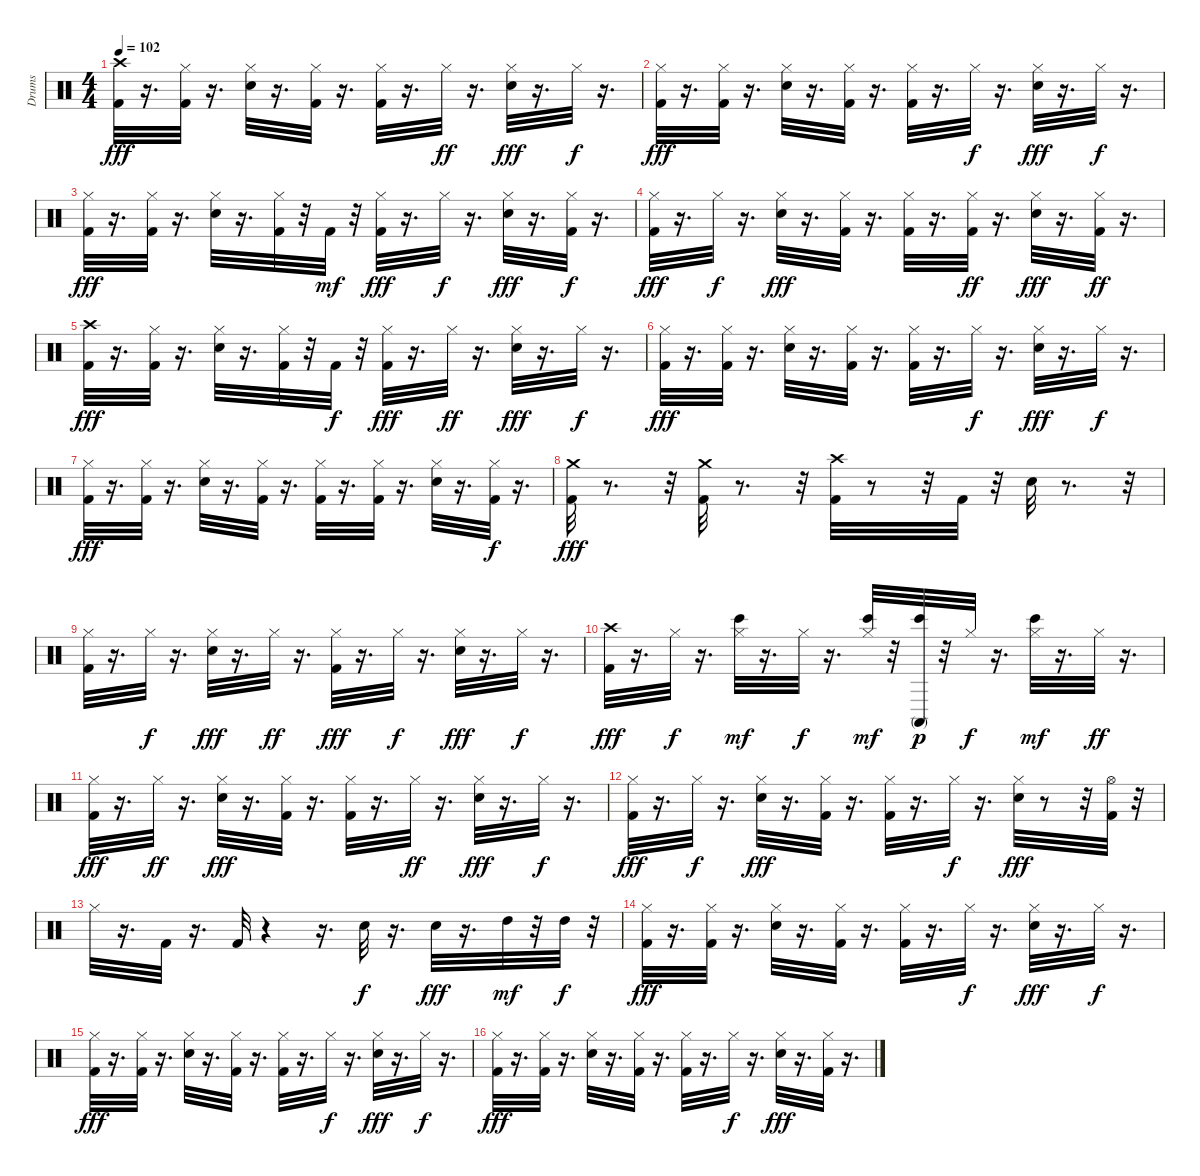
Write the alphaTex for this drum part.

\track ("Drums" "Drums") {instrument percussion}
\staff {score}
\articulation defaults
\ts (4 4)
\tempo 102
\clef neutral
\ks c
("Crash high (hit)" "Kick (hit) 2").32{dy fff} r.16{d} ("Hi-Hat (closed)" "Kick (hit) 2").32 r.16{d} ("Hi-Hat (closed)" "Electric Snare (hit)").32 r.16{d} ("Hi-Hat (closed)" "Kick (hit) 2").32 r.16{d} ("Hi-Hat (closed)" "Kick (hit) 2").32 r.16{d} "Hi-Hat (closed)".32{dy ff} r.16{d} ("Hi-Hat (closed)" "Electric Snare (hit)").32{dy fff} r.16{d} "Hi-Hat (closed)".32{dy f} r.16{d} |
("Hi-Hat (closed)" "Kick (hit) 2").32{dy fff} r.16{d} ("Hi-Hat (closed)" "Kick (hit) 2").32 r.16{d} ("Hi-Hat (closed)" "Electric Snare (hit)").32 r.16{d} ("Hi-Hat (closed)" "Kick (hit) 2").32 r.16{d} ("Hi-Hat (closed)" "Kick (hit) 2").32 r.16{d} "Hi-Hat (closed)".32{dy f} r.16{d} ("Hi-Hat (closed)" "Electric Snare (hit)").32{dy fff} r.16{d} "Hi-Hat (closed)".32{dy f} r.16{d} |
("Hi-Hat (closed)" "Kick (hit) 2").32{dy fff} r.16{d} ("Hi-Hat (closed)" "Kick (hit) 2").32 r.16{d} ("Hi-Hat (closed)" "Electric Snare (hit)").32 r.16{d} ("Hi-Hat (closed)" "Kick (hit) 2").32 r.32 "Kick (hit) 2".32{dy mf} r.32 ("Hi-Hat (closed)" "Kick (hit) 2").32{dy fff} r.16{d} "Hi-Hat (closed)".32{dy f} r.16{d} ("Hi-Hat (closed)" "Electric Snare (hit)").32{dy fff} r.16{d} ("Kick (hit) 2" "Hi-Hat (closed)").32{dy f} r.16{d} |
("Hi-Hat (closed)" "Kick (hit) 2").32{dy fff} r.16{d} "Hi-Hat (closed)".32{dy f} r.16{d} ("Hi-Hat (closed)" "Electric Snare (hit)").32{dy fff} r.16{d} ("Hi-Hat (closed)" "Kick (hit) 2").32 r.16{d} ("Hi-Hat (closed)" "Kick (hit) 2").32 r.16{d} ("Kick (hit) 2" "Hi-Hat (closed)").32{dy ff} r.16{d} ("Hi-Hat (closed)" "Electric Snare (hit)").32{dy fff} r.16{d} ("Kick (hit) 2" "Hi-Hat (closed)").32{dy ff} r.16{d} |
("Crash high (hit)" "Kick (hit) 2").32{dy fff} r.16{d} ("Hi-Hat (closed)" "Kick (hit) 2").32 r.16{d} ("Hi-Hat (closed)" "Electric Snare (hit)").32 r.16{d} ("Hi-Hat (closed)" "Kick (hit) 2").32 r.32 "Kick (hit) 2".32{dy f} r.32 ("Hi-Hat (closed)" "Kick (hit) 2").32{dy fff} r.16{d} "Hi-Hat (closed)".32{dy ff} r.16{d} ("Hi-Hat (closed)" "Electric Snare (hit)").32{dy fff} r.16{d} "Hi-Hat (closed)".32{dy f} r.16{d} |
("Hi-Hat (closed)" "Kick (hit) 2").32{dy fff} r.16{d} ("Hi-Hat (closed)" "Kick (hit) 2").32 r.16{d} ("Hi-Hat (closed)" "Electric Snare (hit)").32 r.16{d} ("Hi-Hat (closed)" "Kick (hit) 2").32 r.16{d} ("Hi-Hat (closed)" "Kick (hit) 2").32 r.16{d} "Hi-Hat (closed)".32{dy f} r.16{d} ("Hi-Hat (closed)" "Electric Snare (hit)").32{dy fff} r.16{d} "Hi-Hat (closed)".32{dy f} r.16{d} |
("Hi-Hat (closed)" "Kick (hit) 2").32{dy fff} r.16{d} ("Hi-Hat (closed)" "Kick (hit) 2").32 r.16{d} ("Hi-Hat (closed)" "Electric Snare (hit)").32 r.16{d} ("Hi-Hat (closed)" "Kick (hit) 2").32 r.16{d} ("Hi-Hat (closed)" "Kick (hit) 2").32 r.16{d} ("Kick (hit) 2" "Hi-Hat (closed)").32 r.16{d} ("Hi-Hat (closed)" "Electric Snare (hit)").32 r.16{d} ("Kick (hit) 2" "Hi-Hat (closed)").32{dy f} r.16{d} |
("Crash medium (hit)" "Kick (hit) 2").32{dy fff} r.8{d} r.32 ("Crash medium (hit)" "Kick (hit) 2").32 r.8{d} r.32 ("Crash high (hit)" "Kick (hit) 2").32 r.8 r.32 "Kick (hit) 2".32 r.32 "Electric Snare (hit)".32 r.8{d} r.32 |
("Hi-Hat (closed)" "Kick (hit) 2").32 r.16{d} "Hi-Hat (closed)".32{dy f} r.16{d} ("Hi-Hat (closed)" "Electric Snare (hit)").32{dy fff} r.16{d} "Hi-Hat (closed)".32{dy ff} r.16{d} ("Hi-Hat (closed)" "Kick (hit) 2").32{dy fff} r.16{d} "Hi-Hat (closed)".32{dy f} r.16{d} ("Hi-Hat (closed)" "Electric Snare (hit)").32{dy fff} r.16{d} "Hi-Hat (closed)".32{dy f} r.16{d} |
("Crash high (hit)" "Kick (hit) 2").32{dy fff} r.16{d} "Hi-Hat (closed)".32{dy f} r.16{d} ("Bongo High (hit)" "Hi-Hat (closed)").32{dy mf} r.16{d} "Hi-Hat (closed)".32{dy f} r.16{d} ("Bongo High (hit)" "Hi-Hat (closed)").32{dy mf} r.32 ("Conga high (mute)" "Bongo High (hit)").32{dy p} r.32 "Hi-Hat (closed)".32{dy f} r.16{d} ("Bongo High (hit)" "Hi-Hat (closed)").32{dy mf} r.16{d} "Hi-Hat (closed)".32{dy ff} r.16{d} |
("Hi-Hat (closed)" "Kick (hit) 2").32{dy fff} r.16{d} "Hi-Hat (closed)".32{dy ff} r.16{d} ("Hi-Hat (closed)" "Electric Snare (hit)").32{dy fff} r.16{d} ("Hi-Hat (closed)" "Kick (hit) 2").32 r.16{d} ("Hi-Hat (closed)" "Kick (hit) 2").32 r.16{d} "Hi-Hat (closed)".32{dy ff} r.16{d} ("Hi-Hat (closed)" "Electric Snare (hit)").32{dy fff} r.16{d} "Hi-Hat (closed)".32{dy f} r.16{d} |
("Hi-Hat (closed)" "Kick (hit) 2").32{dy fff} r.16{d} "Hi-Hat (closed)".32{dy f} r.16{d} ("Hi-Hat (closed)" "Electric Snare (hit)").32{dy fff} r.16{d} ("Hi-Hat (closed)" "Kick (hit) 2").32 r.16{d} ("Hi-Hat (closed)" "Kick (hit) 2").32 r.16{d} "Hi-Hat (closed)".32{dy f} r.16{d} ("Hi-Hat (closed)" "Electric Snare (hit)").32{dy fff} r.8 r.32 ("Hi-Hat (open)" "Kick (hit) 2").32 r.32 |
"Hi-Hat (closed)".32 r.16{d} "Kick (hit) 2".32 r.16{d} "Kick (hit) 2".32 r.4 r.16{d} "Electric Snare (hit)".32{dy f} r.16{d} "Electric Snare (hit)".32{dy fff} r.16{d} "High Tom (hit)".32{dy mf} r.32 "High Tom (hit)".32{dy f} r.32 |
("Hi-Hat (closed)" "Kick (hit) 2").32{dy fff} r.16{d} ("Hi-Hat (closed)" "Kick (hit) 2").32 r.16{d} ("Hi-Hat (closed)" "Electric Snare (hit)").32 r.16{d} ("Hi-Hat (closed)" "Kick (hit) 2").32 r.16{d} ("Hi-Hat (closed)" "Kick (hit) 2").32 r.16{d} "Hi-Hat (closed)".32{dy f} r.16{d} ("Hi-Hat (closed)" "Electric Snare (hit)").32{dy fff} r.16{d} "Hi-Hat (closed)".32{dy f} r.16{d} |
("Hi-Hat (closed)" "Kick (hit) 2").32{dy fff} r.16{d} ("Hi-Hat (closed)" "Kick (hit) 2").32 r.16{d} ("Hi-Hat (closed)" "Electric Snare (hit)").32 r.16{d} ("Hi-Hat (closed)" "Kick (hit) 2").32 r.16{d} ("Hi-Hat (closed)" "Kick (hit) 2").32 r.16{d} "Hi-Hat (closed)".32{dy f} r.16{d} ("Hi-Hat (closed)" "Electric Snare (hit)").32{dy fff} r.16{d} "Hi-Hat (closed)".32{dy f} r.16{d} |
("Hi-Hat (closed)" "Kick (hit) 2").32{dy fff} r.16{d} ("Hi-Hat (closed)" "Kick (hit) 2").32 r.16{d} ("Hi-Hat (closed)" "Electric Snare (hit)").32 r.16{d} ("Hi-Hat (closed)" "Kick (hit) 2").32 r.16{d} ("Hi-Hat (closed)" "Kick (hit) 2").32 r.16{d} "Hi-Hat (closed)".32{dy f} r.16{d} ("Hi-Hat (closed)" "Electric Snare (hit)").32{dy fff} r.16{d} ("Kick (hit) 2" "Hi-Hat (closed)").32 r.16{d}
